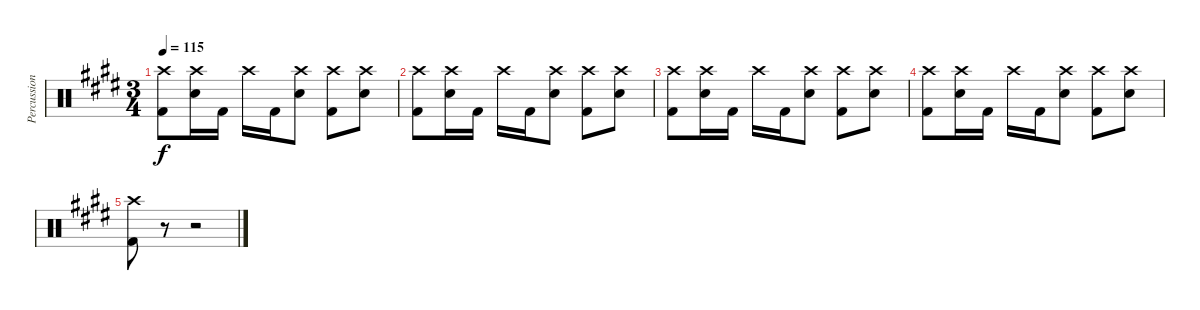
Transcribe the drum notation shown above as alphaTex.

\track ("Percussion" "Percussion") {instrument percussion}
\staff {score}
\articulation defaults
\ts (3 4)
\tempo 115
\clef neutral
\ks e
("Crash high (hit)" "Kick (hit) 2").8{dy f} ("Crash high (hit)" "Electric Snare (hit)").16 "Kick (hit) 2".16 "Crash high (hit)".16 "Kick (hit) 2".16 ("Crash high (hit)" "Electric Snare (hit)").8 ("Crash high (hit)" "Kick (hit) 2").8 ("Crash high (hit)" "Electric Snare (hit)").8 |
("Crash high (hit)" "Kick (hit) 2").8 ("Crash high (hit)" "Electric Snare (hit)").16 "Kick (hit) 2".16 "Crash high (hit)".16 "Kick (hit) 2".16 ("Crash high (hit)" "Electric Snare (hit)").8 ("Crash high (hit)" "Kick (hit) 2").8 ("Crash high (hit)" "Electric Snare (hit)").8 |
("Crash high (hit)" "Kick (hit) 2").8 ("Crash high (hit)" "Electric Snare (hit)").16 "Kick (hit) 2".16 "Crash high (hit)".16 "Kick (hit) 2".16 ("Crash high (hit)" "Electric Snare (hit)").8 ("Crash high (hit)" "Kick (hit) 2").8 ("Crash high (hit)" "Electric Snare (hit)").8 |
("Crash high (hit)" "Kick (hit) 2").8 ("Crash high (hit)" "Electric Snare (hit)").16 "Kick (hit) 2".16 "Crash high (hit)".16 "Kick (hit) 2".16 ("Crash high (hit)" "Electric Snare (hit)").8 ("Crash high (hit)" "Kick (hit) 2").8 ("Crash high (hit)" "Electric Snare (hit)").8 |
("Crash high (hit)" "Kick (hit) 2").8 r.8 r.2
